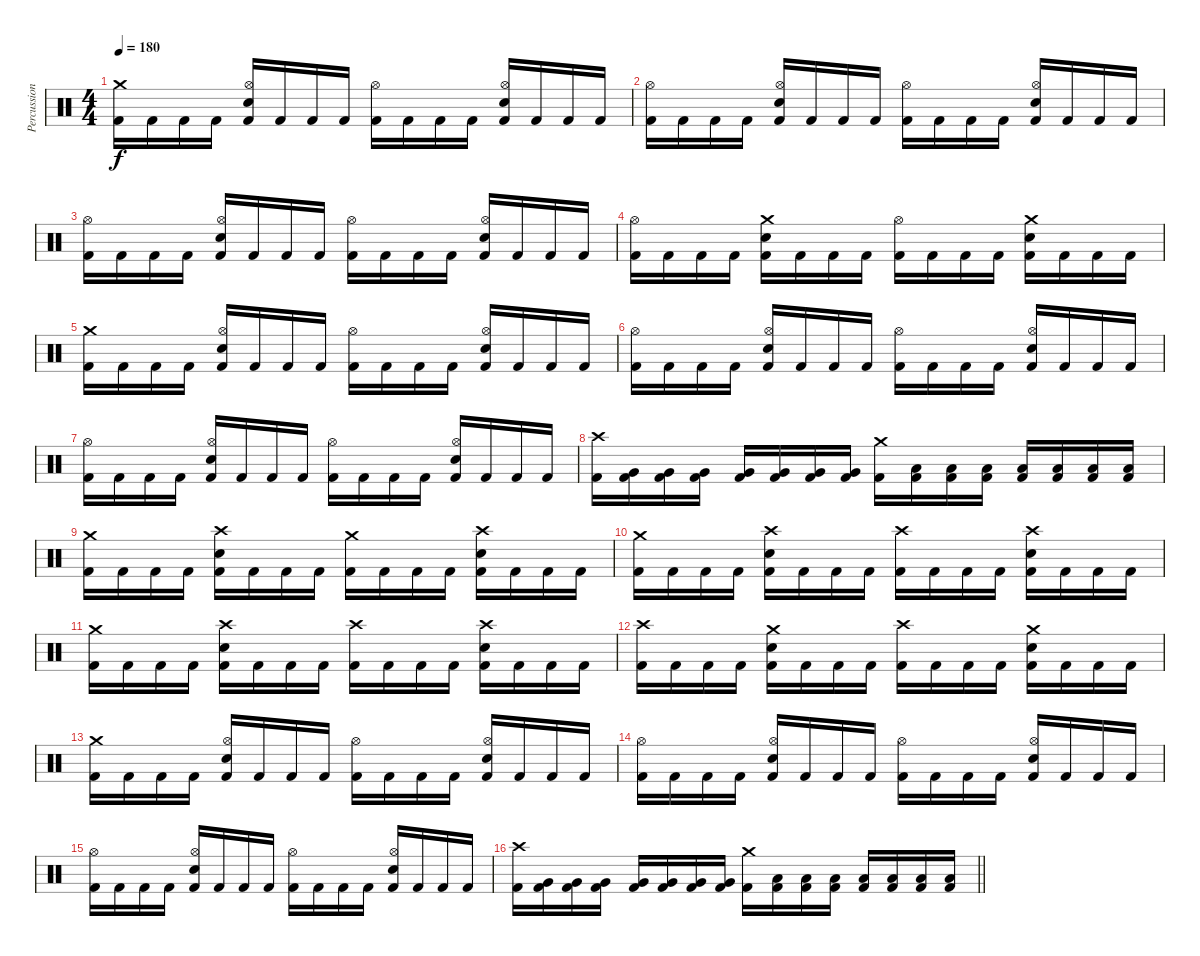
\track ("Percussion" "Percussion") {instrument percussion}
\staff {score}
\articulation defaults
\ts (4 4)
\tempo 180
\clef neutral
\ks c
("Crash medium (hit)" "Kick (hit) 2").16{dy f} "Kick (hit) 2".16 "Kick (hit) 2".16 "Kick (hit) 2".16 ("Hi-Hat (open)" "Snare (hit) 2" "Kick (hit) 2").16 "Kick (hit) 2".16 "Kick (hit) 2".16 "Kick (hit) 2".16 ("Hi-Hat (open)" "Kick (hit) 2").16 "Kick (hit) 2".16 "Kick (hit) 2".16 "Kick (hit) 2".16 ("Hi-Hat (open)" "Snare (hit) 2" "Kick (hit) 2").16 "Kick (hit) 2".16 "Kick (hit) 2".16 "Kick (hit) 2".16 |
("Hi-Hat (open)" "Kick (hit) 2").16 "Kick (hit) 2".16 "Kick (hit) 2".16 "Kick (hit) 2".16 ("Hi-Hat (open)" "Snare (hit) 2" "Kick (hit) 2").16 "Kick (hit) 2".16 "Kick (hit) 2".16 "Kick (hit) 2".16 ("Hi-Hat (open)" "Kick (hit) 2").16 "Kick (hit) 2".16 "Kick (hit) 2".16 "Kick (hit) 2".16 ("Hi-Hat (open)" "Snare (hit) 2" "Kick (hit) 2").16 "Kick (hit) 2".16 "Kick (hit) 2".16 "Kick (hit) 2".16 |
("Hi-Hat (open)" "Kick (hit) 2").16 "Kick (hit) 2".16 "Kick (hit) 2".16 "Kick (hit) 2".16 ("Hi-Hat (open)" "Snare (hit) 2" "Kick (hit) 2").16 "Kick (hit) 2".16 "Kick (hit) 2".16 "Kick (hit) 2".16 ("Hi-Hat (open)" "Kick (hit) 2").16 "Kick (hit) 2".16 "Kick (hit) 2".16 "Kick (hit) 2".16 ("Hi-Hat (open)" "Snare (hit) 2" "Kick (hit) 2").16 "Kick (hit) 2".16 "Kick (hit) 2".16 "Kick (hit) 2".16 |
("Hi-Hat (open)" "Kick (hit) 2").16 "Kick (hit) 2".16 "Kick (hit) 2".16 "Kick (hit) 2".16 ("Crash medium (hit)" "Snare (hit) 2" "Kick (hit) 2").16 "Kick (hit) 2".16 "Kick (hit) 2".16 "Kick (hit) 2".16 ("Hi-Hat (open)" "Kick (hit) 2").16 "Kick (hit) 2".16 "Kick (hit) 2".16 "Kick (hit) 2".16 ("Crash medium (hit)" "Snare (hit) 2" "Kick (hit) 2").16 "Kick (hit) 2".16 "Kick (hit) 2".16 "Kick (hit) 2".16 |
("Crash medium (hit)" "Kick (hit) 2").16 "Kick (hit) 2".16 "Kick (hit) 2".16 "Kick (hit) 2".16 ("Hi-Hat (open)" "Snare (hit) 2" "Kick (hit) 2").16 "Kick (hit) 2".16 "Kick (hit) 2".16 "Kick (hit) 2".16 ("Hi-Hat (open)" "Kick (hit) 2").16 "Kick (hit) 2".16 "Kick (hit) 2".16 "Kick (hit) 2".16 ("Hi-Hat (open)" "Snare (hit) 2" "Kick (hit) 2").16 "Kick (hit) 2".16 "Kick (hit) 2".16 "Kick (hit) 2".16 |
("Hi-Hat (open)" "Kick (hit) 2").16 "Kick (hit) 2".16 "Kick (hit) 2".16 "Kick (hit) 2".16 ("Hi-Hat (open)" "Snare (hit) 2" "Kick (hit) 2").16 "Kick (hit) 2".16 "Kick (hit) 2".16 "Kick (hit) 2".16 ("Hi-Hat (open)" "Kick (hit) 2").16 "Kick (hit) 2".16 "Kick (hit) 2".16 "Kick (hit) 2".16 ("Hi-Hat (open)" "Snare (hit) 2" "Kick (hit) 2").16 "Kick (hit) 2".16 "Kick (hit) 2".16 "Kick (hit) 2".16 |
("Hi-Hat (open)" "Kick (hit) 2").16 "Kick (hit) 2".16 "Kick (hit) 2".16 "Kick (hit) 2".16 ("Hi-Hat (open)" "Snare (hit) 2" "Kick (hit) 2").16 "Kick (hit) 2".16 "Kick (hit) 2".16 "Kick (hit) 2".16 ("Hi-Hat (open)" "Kick (hit) 2").16 "Kick (hit) 2".16 "Kick (hit) 2".16 "Kick (hit) 2".16 ("Hi-Hat (open)" "Snare (hit) 2" "Kick (hit) 2").16 "Kick (hit) 2".16 "Kick (hit) 2".16 "Kick (hit) 2".16 |
("Crash high (hit)" "Kick (hit) 2").16 ("Very Low Tom (hit)" "Kick (hit) 2").16 ("Very Low Tom (hit)" "Kick (hit) 2").16 ("Very Low Tom (hit)" "Kick (hit) 2").16 ("Very Low Tom (hit)" "Kick (hit) 2").16 ("Very Low Tom (hit)" "Kick (hit) 2").16 ("Very Low Tom (hit)" "Kick (hit) 2").16 ("Very Low Tom (hit)" "Kick (hit) 2").16 ("Crash medium (hit)" "Kick (hit) 2").16 ("Low Tom (hit)" "Kick (hit) 2").16 ("Low Tom (hit)" "Kick (hit) 2").16 ("Low Tom (hit)" "Kick (hit) 2").16 ("Low Tom (hit)" "Kick (hit) 2").16 ("Low Tom (hit)" "Kick (hit) 2").16 ("Low Tom (hit)" "Kick (hit) 2").16 ("Low Tom (hit)" "Kick (hit) 2").16 |
("Crash medium (hit)" "Kick (hit) 2").16 "Kick (hit) 2".16 "Kick (hit) 2".16 "Kick (hit) 2".16 ("Crash high (hit)" "Snare (hit) 2" "Kick (hit) 2").16 "Kick (hit) 2".16 "Kick (hit) 2".16 "Kick (hit) 2".16 ("Crash medium (hit)" "Kick (hit) 2").16 "Kick (hit) 2".16 "Kick (hit) 2".16 "Kick (hit) 2".16 ("Crash high (hit)" "Snare (hit) 2" "Kick (hit) 2").16 "Kick (hit) 2".16 "Kick (hit) 2".16 "Kick (hit) 2".16 |
("Crash medium (hit)" "Kick (hit) 2").16 "Kick (hit) 2".16 "Kick (hit) 2".16 "Kick (hit) 2".16 ("Crash high (hit)" "Snare (hit) 2" "Kick (hit) 2").16 "Kick (hit) 2".16 "Kick (hit) 2".16 "Kick (hit) 2".16 ("Crash high (hit)" "Kick (hit) 2").16 "Kick (hit) 2".16 "Kick (hit) 2".16 "Kick (hit) 2".16 ("Crash high (hit)" "Snare (hit) 2" "Kick (hit) 2").16 "Kick (hit) 2".16 "Kick (hit) 2".16 "Kick (hit) 2".16 |
("Crash medium (hit)" "Kick (hit) 2").16 "Kick (hit) 2".16 "Kick (hit) 2".16 "Kick (hit) 2".16 ("Crash high (hit)" "Snare (hit) 2" "Kick (hit) 2").16 "Kick (hit) 2".16 "Kick (hit) 2".16 "Kick (hit) 2".16 ("Crash high (hit)" "Kick (hit) 2").16 "Kick (hit) 2".16 "Kick (hit) 2".16 "Kick (hit) 2".16 ("Crash high (hit)" "Snare (hit) 2" "Kick (hit) 2").16 "Kick (hit) 2".16 "Kick (hit) 2".16 "Kick (hit) 2".16 |
("Crash high (hit)" "Kick (hit) 2").16 "Kick (hit) 2".16 "Kick (hit) 2".16 "Kick (hit) 2".16 ("Crash medium (hit)" "Snare (hit) 2" "Kick (hit) 2").16 "Kick (hit) 2".16 "Kick (hit) 2".16 "Kick (hit) 2".16 ("Crash high (hit)" "Kick (hit) 2").16 "Kick (hit) 2".16 "Kick (hit) 2".16 "Kick (hit) 2".16 ("Crash medium (hit)" "Snare (hit) 2" "Kick (hit) 2").16 "Kick (hit) 2".16 "Kick (hit) 2".16 "Kick (hit) 2".16 |
("Crash medium (hit)" "Kick (hit) 2").16 "Kick (hit) 2".16 "Kick (hit) 2".16 "Kick (hit) 2".16 ("Hi-Hat (open)" "Snare (hit) 2" "Kick (hit) 2").16 "Kick (hit) 2".16 "Kick (hit) 2".16 "Kick (hit) 2".16 ("Hi-Hat (open)" "Kick (hit) 2").16 "Kick (hit) 2".16 "Kick (hit) 2".16 "Kick (hit) 2".16 ("Hi-Hat (open)" "Snare (hit) 2" "Kick (hit) 2").16 "Kick (hit) 2".16 "Kick (hit) 2".16 "Kick (hit) 2".16 |
("Hi-Hat (open)" "Kick (hit) 2").16 "Kick (hit) 2".16 "Kick (hit) 2".16 "Kick (hit) 2".16 ("Hi-Hat (open)" "Snare (hit) 2" "Kick (hit) 2").16 "Kick (hit) 2".16 "Kick (hit) 2".16 "Kick (hit) 2".16 ("Hi-Hat (open)" "Kick (hit) 2").16 "Kick (hit) 2".16 "Kick (hit) 2".16 "Kick (hit) 2".16 ("Hi-Hat (open)" "Snare (hit) 2" "Kick (hit) 2").16 "Kick (hit) 2".16 "Kick (hit) 2".16 "Kick (hit) 2".16 |
("Hi-Hat (open)" "Kick (hit) 2").16 "Kick (hit) 2".16 "Kick (hit) 2".16 "Kick (hit) 2".16 ("Hi-Hat (open)" "Snare (hit) 2" "Kick (hit) 2").16 "Kick (hit) 2".16 "Kick (hit) 2".16 "Kick (hit) 2".16 ("Hi-Hat (open)" "Kick (hit) 2").16 "Kick (hit) 2".16 "Kick (hit) 2".16 "Kick (hit) 2".16 ("Hi-Hat (open)" "Snare (hit) 2" "Kick (hit) 2").16 "Kick (hit) 2".16 "Kick (hit) 2".16 "Kick (hit) 2".16 |
\barLineRight lightlight
("Crash high (hit)" "Kick (hit) 2").16 ("Very Low Tom (hit)" "Kick (hit) 2").16 ("Very Low Tom (hit)" "Kick (hit) 2").16 ("Very Low Tom (hit)" "Kick (hit) 2").16 ("Very Low Tom (hit)" "Kick (hit) 2").16 ("Very Low Tom (hit)" "Kick (hit) 2").16 ("Very Low Tom (hit)" "Kick (hit) 2").16 ("Very Low Tom (hit)" "Kick (hit) 2").16 ("Crash medium (hit)" "Kick (hit) 2").16 ("Low Tom (hit)" "Kick (hit) 2").16 ("Low Tom (hit)" "Kick (hit) 2").16 ("Low Tom (hit)" "Kick (hit) 2").16 ("Low Tom (hit)" "Kick (hit) 2").16 ("Low Tom (hit)" "Kick (hit) 2").16 ("Low Tom (hit)" "Kick (hit) 2").16 ("Low Tom (hit)" "Kick (hit) 2").16
